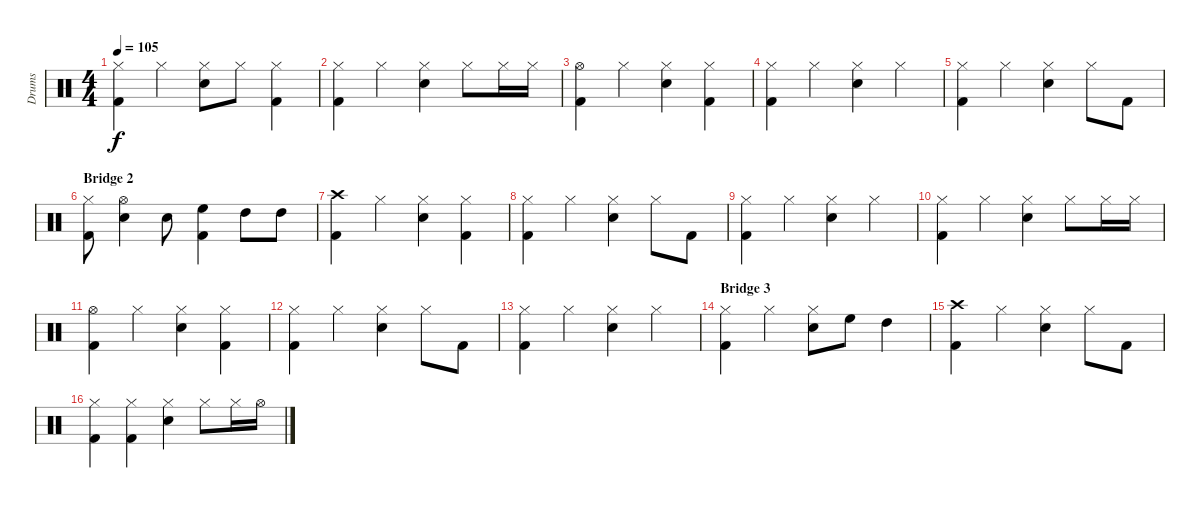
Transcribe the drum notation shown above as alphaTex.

\track ("Drums" "Drums") {instrument percussion}
\staff {score}
\articulation defaults
\ts (4 4)
\tempo 105
\clef neutral
\ks c
("Hi-Hat (closed)" "Kick (hit) 2").4{dy f} "Hi-Hat (closed)".4 ("Hi-Hat (closed)" "Snare (hit) 2").8 "Hi-Hat (closed)".8 ("Hi-Hat (closed)" "Kick (hit) 2").4 |
("Hi-Hat (closed)" "Kick (hit) 2").4 "Hi-Hat (closed)".4 ("Hi-Hat (closed)" "Snare (hit) 2").4 "Hi-Hat (closed)".8 "Hi-Hat (closed)".16 "Hi-Hat (closed)".16 |
("Hi-Hat (open)" "Kick (hit) 2").4 "Hi-Hat (closed)".4 ("Hi-Hat (closed)" "Snare (hit) 2").4 ("Hi-Hat (closed)" "Kick (hit) 2").4 |
("Hi-Hat (closed)" "Kick (hit) 2").4 "Hi-Hat (closed)".4 ("Hi-Hat (closed)" "Snare (hit) 2").4 "Hi-Hat (closed)".4 |
("Hi-Hat (closed)" "Kick (hit) 2").4 "Hi-Hat (closed)".4 ("Hi-Hat (closed)" "Snare (hit) 2").4 "Hi-Hat (closed)".8 "Kick (hit) 2".8 |
\section ("" "Bridge 2")
("Hi-Hat (closed)" "Kick (hit) 2").8 ("Hi-Hat (open)" "Snare (hit) 2").4 "Snare (hit) 2".8 ("High Floor Tom (hit)" "Kick (hit) 2").4 "High Tom (hit)".8 "High Tom (hit)".8 |
("Crash high (hit)" "Kick (hit) 2").4 "Hi-Hat (closed)".4 ("Hi-Hat (closed)" "Snare (hit) 2").4 ("Hi-Hat (closed)" "Kick (hit) 2").4 |
("Hi-Hat (closed)" "Kick (hit) 2").4 "Hi-Hat (closed)".4 ("Hi-Hat (closed)" "Snare (hit) 2").4 "Hi-Hat (closed)".8 "Kick (hit) 2".8 |
("Hi-Hat (closed)" "Kick (hit) 2").4 "Hi-Hat (closed)".4 ("Hi-Hat (closed)" "Snare (hit) 2").4 "Hi-Hat (closed)".4 |
("Hi-Hat (closed)" "Kick (hit) 2").4 "Hi-Hat (closed)".4 ("Hi-Hat (closed)" "Snare (hit) 2").4 "Hi-Hat (closed)".8 "Hi-Hat (closed)".16 "Hi-Hat (closed)".16 |
("Hi-Hat (open)" "Kick (hit) 2").4 "Hi-Hat (closed)".4 ("Hi-Hat (closed)" "Snare (hit) 2").4 ("Hi-Hat (closed)" "Kick (hit) 2").4 |
("Hi-Hat (closed)" "Kick (hit) 2").4 "Hi-Hat (closed)".4 ("Hi-Hat (closed)" "Snare (hit) 2").4 "Hi-Hat (closed)".8 "Kick (hit) 2".8 |
("Hi-Hat (closed)" "Kick (hit) 2").4 "Hi-Hat (closed)".4 ("Hi-Hat (closed)" "Snare (hit) 2").4 "Hi-Hat (closed)".4 |
\section ("" "Bridge 3")
("Hi-Hat (closed)" "Kick (hit) 2").4 "Hi-Hat (closed)".4 ("Hi-Hat (closed)" "Snare (hit) 2").8 "High Floor Tom (hit)".8 "High Tom (hit)".4 |
("Crash high (hit)" "Kick (hit) 2").4 "Hi-Hat (closed)".4 ("Hi-Hat (closed)" "Snare (hit) 2").4 "Hi-Hat (closed)".8 "Kick (hit) 2".8 |
("Hi-Hat (closed)" "Kick (hit) 2").4 ("Hi-Hat (closed)" "Kick (hit) 2").4 ("Hi-Hat (closed)" "Snare (hit) 2").4 "Hi-Hat (closed)".8 "Hi-Hat (closed)".16 "Hi-Hat (open)".16
